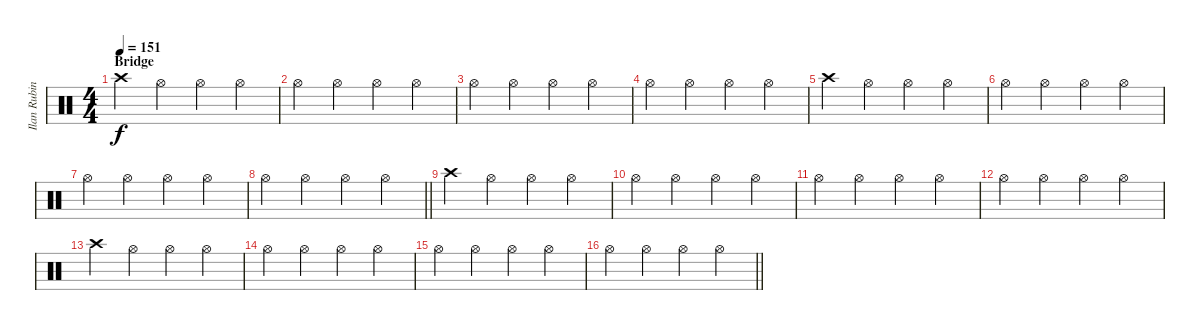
\track ("Ilan Rubin [Drums]" "Ilan Rubin") {instrument percussion}
\staff {score}
\articulation defaults
\ts (4 4)
\section ("" "Bridge")
\tempo 151
\clef neutral
\ks c "Crash high (hit)".4{dy f} "Hi-Hat (open)".4 "Hi-Hat (open)".4 "Hi-Hat (open)".4
|
"Hi-Hat (open)".4 "Hi-Hat (open)".4 "Hi-Hat (open)".4 "Hi-Hat (open)".4 |
"Hi-Hat (open)".4 "Hi-Hat (open)".4 "Hi-Hat (open)".4 "Hi-Hat (open)".4 |
"Hi-Hat (open)".4 "Hi-Hat (open)".4 "Hi-Hat (open)".4 "Hi-Hat (open)".4 |
"Crash high (hit)".4 "Hi-Hat (open)".4 "Hi-Hat (open)".4 "Hi-Hat (open)".4 |
"Hi-Hat (open)".4 "Hi-Hat (open)".4 "Hi-Hat (open)".4 "Hi-Hat (open)".4 |
"Hi-Hat (open)".4 "Hi-Hat (open)".4 "Hi-Hat (open)".4 "Hi-Hat (open)".4 |
\barLineRight lightlight "Hi-Hat (open)".4 "Hi-Hat (open)".4 "Hi-Hat (open)".4 "Hi-Hat (open)".4
|
"Crash high (hit)".4 "Hi-Hat (open)".4 "Hi-Hat (open)".4 "Hi-Hat (open)".4 |
"Hi-Hat (open)".4 "Hi-Hat (open)".4 "Hi-Hat (open)".4 "Hi-Hat (open)".4 |
"Hi-Hat (open)".4 "Hi-Hat (open)".4 "Hi-Hat (open)".4 "Hi-Hat (open)".4 |
"Hi-Hat (open)".4 "Hi-Hat (open)".4 "Hi-Hat (open)".4 "Hi-Hat (open)".4 |
"Crash high (hit)".4 "Hi-Hat (open)".4 "Hi-Hat (open)".4 "Hi-Hat (open)".4 |
"Hi-Hat (open)".4 "Hi-Hat (open)".4 "Hi-Hat (open)".4 "Hi-Hat (open)".4 |
"Hi-Hat (open)".4 "Hi-Hat (open)".4 "Hi-Hat (open)".4 "Hi-Hat (open)".4 |
\barLineRight lightlight "Hi-Hat (open)".4 "Hi-Hat (open)".4 "Hi-Hat (open)".4 "Hi-Hat (open)".4
